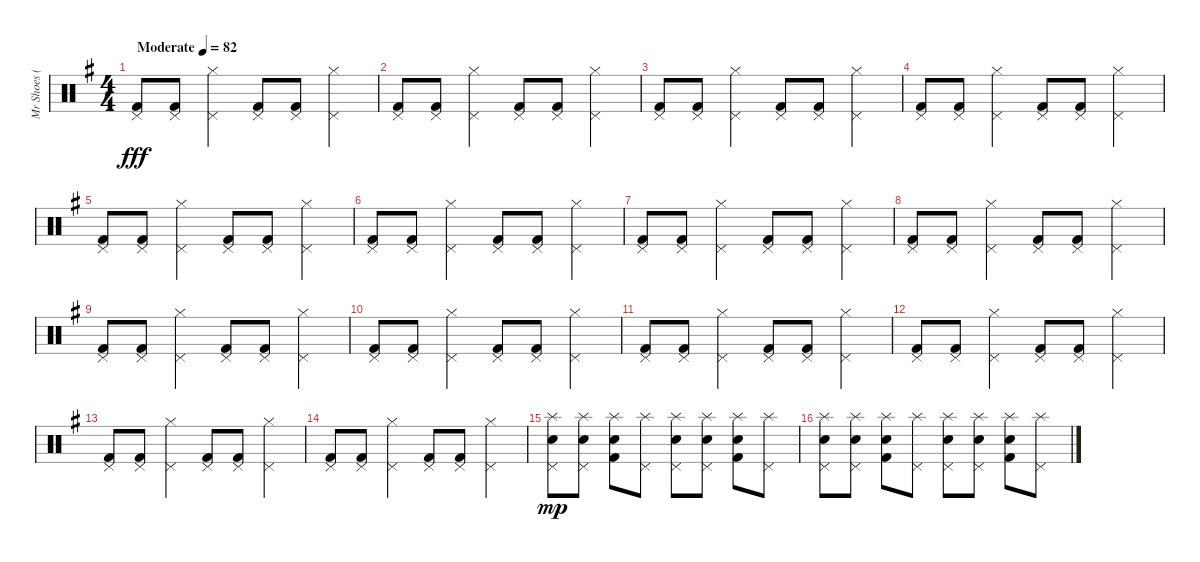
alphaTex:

\track ("Mr Shoes (batterie)" "Mr Shoes (") {instrument percussion}
\staff {score}
\articulation defaults
\ts (4 4)
\tempo (82 "Moderate")
\clef neutral
\ks g
("Kick (hit) 2" "Pedal Hi-Hat (hit)").8{dy fff volume 0} ("Kick (hit) 2" "Pedal Hi-Hat (hit)").8{volume 13} ("Pedal Hi-Hat (hit)" "Hi-Hat (closed)").4 ("Kick (hit) 2" "Pedal Hi-Hat (hit)").8 ("Kick (hit) 2" "Pedal Hi-Hat (hit)").8 ("Pedal Hi-Hat (hit)" "Hi-Hat (closed)").4 |
("Kick (hit) 2" "Pedal Hi-Hat (hit)").8 ("Kick (hit) 2" "Pedal Hi-Hat (hit)").8 ("Pedal Hi-Hat (hit)" "Hi-Hat (closed)").4 ("Kick (hit) 2" "Pedal Hi-Hat (hit)").8 ("Kick (hit) 2" "Pedal Hi-Hat (hit)").8 ("Pedal Hi-Hat (hit)" "Hi-Hat (closed)").4 |
("Kick (hit) 2" "Pedal Hi-Hat (hit)").8 ("Kick (hit) 2" "Pedal Hi-Hat (hit)").8 ("Pedal Hi-Hat (hit)" "Hi-Hat (closed)").4 ("Kick (hit) 2" "Pedal Hi-Hat (hit)").8 ("Kick (hit) 2" "Pedal Hi-Hat (hit)").8 ("Pedal Hi-Hat (hit)" "Hi-Hat (closed)").4 |
("Kick (hit) 2" "Pedal Hi-Hat (hit)").8 ("Kick (hit) 2" "Pedal Hi-Hat (hit)").8 ("Pedal Hi-Hat (hit)" "Hi-Hat (closed)").4 ("Kick (hit) 2" "Pedal Hi-Hat (hit)").8 ("Kick (hit) 2" "Pedal Hi-Hat (hit)").8 ("Pedal Hi-Hat (hit)" "Hi-Hat (closed)").4 |
("Kick (hit) 2" "Pedal Hi-Hat (hit)").8 ("Kick (hit) 2" "Pedal Hi-Hat (hit)").8 ("Pedal Hi-Hat (hit)" "Hi-Hat (closed)").4 ("Kick (hit) 2" "Pedal Hi-Hat (hit)").8 ("Kick (hit) 2" "Pedal Hi-Hat (hit)").8 ("Pedal Hi-Hat (hit)" "Hi-Hat (closed)").4 |
("Kick (hit) 2" "Pedal Hi-Hat (hit)").8 ("Kick (hit) 2" "Pedal Hi-Hat (hit)").8 ("Pedal Hi-Hat (hit)" "Hi-Hat (closed)").4 ("Kick (hit) 2" "Pedal Hi-Hat (hit)").8 ("Kick (hit) 2" "Pedal Hi-Hat (hit)").8 ("Pedal Hi-Hat (hit)" "Hi-Hat (closed)").4 |
("Kick (hit) 2" "Pedal Hi-Hat (hit)").8 ("Kick (hit) 2" "Pedal Hi-Hat (hit)").8 ("Pedal Hi-Hat (hit)" "Hi-Hat (closed)").4 ("Kick (hit) 2" "Pedal Hi-Hat (hit)").8 ("Kick (hit) 2" "Pedal Hi-Hat (hit)").8 ("Pedal Hi-Hat (hit)" "Hi-Hat (closed)").4 |
("Kick (hit) 2" "Pedal Hi-Hat (hit)").8 ("Kick (hit) 2" "Pedal Hi-Hat (hit)").8 ("Pedal Hi-Hat (hit)" "Hi-Hat (closed)").4 ("Kick (hit) 2" "Pedal Hi-Hat (hit)").8 ("Kick (hit) 2" "Pedal Hi-Hat (hit)").8 ("Pedal Hi-Hat (hit)" "Hi-Hat (closed)").4 |
("Kick (hit) 2" "Pedal Hi-Hat (hit)").8 ("Kick (hit) 2" "Pedal Hi-Hat (hit)").8 ("Pedal Hi-Hat (hit)" "Hi-Hat (closed)").4 ("Kick (hit) 2" "Pedal Hi-Hat (hit)").8 ("Kick (hit) 2" "Pedal Hi-Hat (hit)").8 ("Pedal Hi-Hat (hit)" "Hi-Hat (closed)").4 |
("Kick (hit) 2" "Pedal Hi-Hat (hit)").8 ("Kick (hit) 2" "Pedal Hi-Hat (hit)").8 ("Pedal Hi-Hat (hit)" "Hi-Hat (closed)").4 ("Kick (hit) 2" "Pedal Hi-Hat (hit)").8 ("Kick (hit) 2" "Pedal Hi-Hat (hit)").8 ("Pedal Hi-Hat (hit)" "Hi-Hat (closed)").4 |
("Kick (hit) 2" "Pedal Hi-Hat (hit)").8 ("Kick (hit) 2" "Pedal Hi-Hat (hit)").8 ("Pedal Hi-Hat (hit)" "Hi-Hat (closed)").4 ("Kick (hit) 2" "Pedal Hi-Hat (hit)").8 ("Kick (hit) 2" "Pedal Hi-Hat (hit)").8 ("Pedal Hi-Hat (hit)" "Hi-Hat (closed)").4 |
("Kick (hit) 2" "Pedal Hi-Hat (hit)").8 ("Kick (hit) 2" "Pedal Hi-Hat (hit)").8 ("Pedal Hi-Hat (hit)" "Hi-Hat (closed)").4 ("Kick (hit) 2" "Pedal Hi-Hat (hit)").8 ("Kick (hit) 2" "Pedal Hi-Hat (hit)").8 ("Pedal Hi-Hat (hit)" "Hi-Hat (closed)").4 |
("Kick (hit) 2" "Pedal Hi-Hat (hit)").8 ("Kick (hit) 2" "Pedal Hi-Hat (hit)").8 ("Pedal Hi-Hat (hit)" "Hi-Hat (closed)").4 ("Kick (hit) 2" "Pedal Hi-Hat (hit)").8 ("Kick (hit) 2" "Pedal Hi-Hat (hit)").8 ("Pedal Hi-Hat (hit)" "Hi-Hat (closed)").4 |
("Kick (hit) 2" "Pedal Hi-Hat (hit)").8 ("Kick (hit) 2" "Pedal Hi-Hat (hit)").8 ("Pedal Hi-Hat (hit)" "Hi-Hat (closed)").4 ("Kick (hit) 2" "Pedal Hi-Hat (hit)").8 ("Kick (hit) 2" "Pedal Hi-Hat (hit)").8 ("Pedal Hi-Hat (hit)" "Hi-Hat (closed)").4 |
("Electric Snare (hit)" "Pedal Hi-Hat (hit)" "Splash (hit)").8{dy mp} ("Electric Snare (hit)" "Pedal Hi-Hat (hit)" "Splash (hit)").8 ("Kick (hit) 2" "Snare (hit) 2" "Splash (hit)").8 ("Pedal Hi-Hat (hit)" "Splash (hit)").8 ("Electric Snare (hit)" "Pedal Hi-Hat (hit)" "Splash (hit)").8 ("Electric Snare (hit)" "Pedal Hi-Hat (hit)" "Splash (hit)").8 ("Kick (hit) 2" "Snare (hit) 2" "Splash (hit)").8 ("Pedal Hi-Hat (hit)" "Splash (hit)").8 |
("Electric Snare (hit)" "Pedal Hi-Hat (hit)" "Splash (hit)").8 ("Electric Snare (hit)" "Pedal Hi-Hat (hit)" "Splash (hit)").8 ("Kick (hit) 2" "Snare (hit) 2" "Splash (hit)").8 ("Pedal Hi-Hat (hit)" "Splash (hit)").8 ("Electric Snare (hit)" "Pedal Hi-Hat (hit)" "Splash (hit)").8 ("Electric Snare (hit)" "Pedal Hi-Hat (hit)" "Splash (hit)").8 ("Kick (hit) 2" "Snare (hit) 2" "Splash (hit)").8 ("Pedal Hi-Hat (hit)" "Splash (hit)").8
